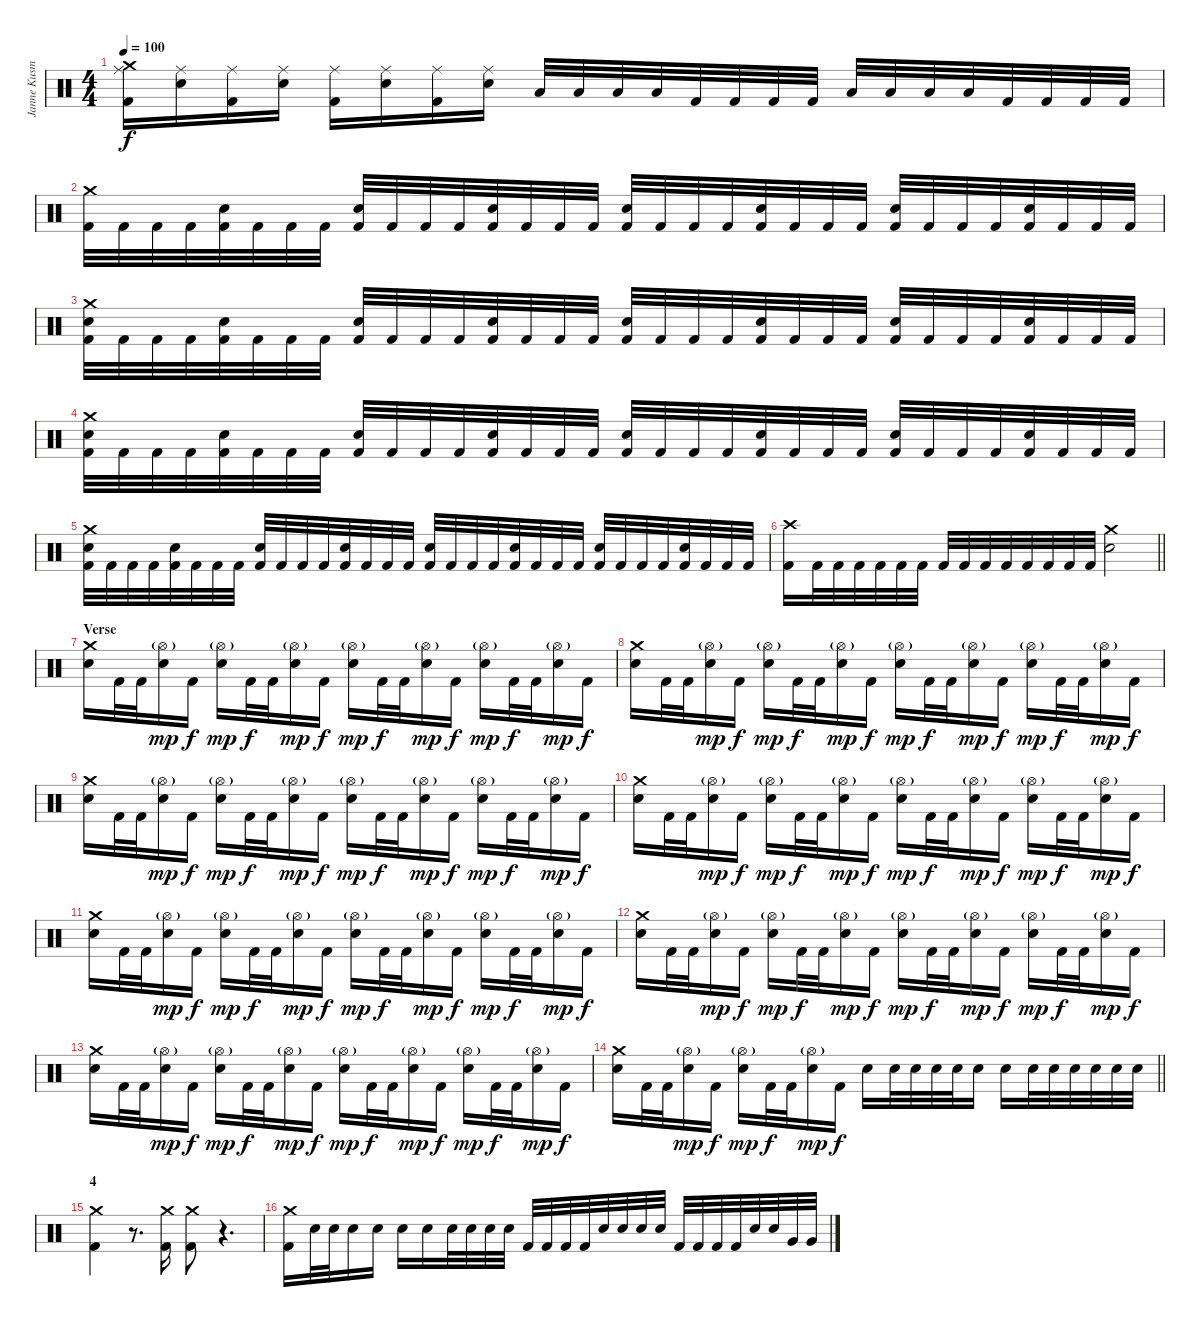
\track ("Janne Kusmin " "Janne Kusm") {instrument percussion}
\staff {score}
\articulation defaults
\ts (4 4)
\tempo 100
\clef neutral
\ks c
("Crash medium (hit)" "Ride (middle)" "Kick (hit) 2").16{dy f} ("Ride (middle)" "Electric Snare (hit)").16 ("Ride (middle)" "Kick (hit) 2").16 ("Ride (middle)" "Electric Snare (hit)").16 ("Ride (middle)" "Kick (hit) 2").16 ("Ride (middle)" "Electric Snare (hit)").16 ("Ride (middle)" "Kick (hit) 2").16 ("Ride (middle)" "Electric Snare (hit)").16 "Low Tom (hit)".32 "Low Tom (hit)".32 "Low Tom (hit)".32 "Low Tom (hit)".32 "Kick (hit) 2".32 "Kick (hit) 2".32 "Kick (hit) 2".32 "Kick (hit) 2".32 "Low Tom (hit)".32 "Low Tom (hit)".32 "Low Tom (hit)".32 "Low Tom (hit)".32 "Kick (hit) 2".32 "Kick (hit) 2".32 "Kick (hit) 2".32 "Kick (hit) 2".32 |
("Crash medium (hit)" "Kick (hit) 2").32 "Kick (hit) 2".32 "Kick (hit) 2".32 "Kick (hit) 2".32 ("Electric Snare (hit)" "Kick (hit) 2").32 "Kick (hit) 2".32 "Kick (hit) 2".32 "Kick (hit) 2".32 ("Electric Snare (hit)" "Kick (hit) 2").32 "Kick (hit) 2".32 "Kick (hit) 2".32 "Kick (hit) 2".32 ("Electric Snare (hit)" "Kick (hit) 2").32 "Kick (hit) 2".32 "Kick (hit) 2".32 "Kick (hit) 2".32 ("Electric Snare (hit)" "Kick (hit) 2").32 "Kick (hit) 2".32 "Kick (hit) 2".32 "Kick (hit) 2".32 ("Electric Snare (hit)" "Kick (hit) 2").32 "Kick (hit) 2".32 "Kick (hit) 2".32 "Kick (hit) 2".32 ("Electric Snare (hit)" "Kick (hit) 2").32 "Kick (hit) 2".32 "Kick (hit) 2".32 "Kick (hit) 2".32 ("Electric Snare (hit)" "Kick (hit) 2").32 "Kick (hit) 2".32 "Kick (hit) 2".32 "Kick (hit) 2".32 |
("Crash medium (hit)" "Electric Snare (hit)" "Kick (hit) 2").32 "Kick (hit) 2".32 "Kick (hit) 2".32 "Kick (hit) 2".32 ("Electric Snare (hit)" "Kick (hit) 2").32 "Kick (hit) 2".32 "Kick (hit) 2".32 "Kick (hit) 2".32 ("Electric Snare (hit)" "Kick (hit) 2").32 "Kick (hit) 2".32 "Kick (hit) 2".32 "Kick (hit) 2".32 ("Electric Snare (hit)" "Kick (hit) 2").32 "Kick (hit) 2".32 "Kick (hit) 2".32 "Kick (hit) 2".32 ("Electric Snare (hit)" "Kick (hit) 2").32 "Kick (hit) 2".32 "Kick (hit) 2".32 "Kick (hit) 2".32 ("Electric Snare (hit)" "Kick (hit) 2").32 "Kick (hit) 2".32 "Kick (hit) 2".32 "Kick (hit) 2".32 ("Electric Snare (hit)" "Kick (hit) 2").32 "Kick (hit) 2".32 "Kick (hit) 2".32 "Kick (hit) 2".32 ("Electric Snare (hit)" "Kick (hit) 2").32 "Kick (hit) 2".32 "Kick (hit) 2".32 "Kick (hit) 2".32 |
("Crash medium (hit)" "Electric Snare (hit)" "Kick (hit) 2").32 "Kick (hit) 2".32 "Kick (hit) 2".32 "Kick (hit) 2".32 ("Electric Snare (hit)" "Kick (hit) 2").32 "Kick (hit) 2".32 "Kick (hit) 2".32 "Kick (hit) 2".32 ("Electric Snare (hit)" "Kick (hit) 2").32 "Kick (hit) 2".32 "Kick (hit) 2".32 "Kick (hit) 2".32 ("Electric Snare (hit)" "Kick (hit) 2").32 "Kick (hit) 2".32 "Kick (hit) 2".32 "Kick (hit) 2".32 ("Electric Snare (hit)" "Kick (hit) 2").32 "Kick (hit) 2".32 "Kick (hit) 2".32 "Kick (hit) 2".32 ("Electric Snare (hit)" "Kick (hit) 2").32 "Kick (hit) 2".32 "Kick (hit) 2".32 "Kick (hit) 2".32 ("Electric Snare (hit)" "Kick (hit) 2").32 "Kick (hit) 2".32 "Kick (hit) 2".32 "Kick (hit) 2".32 ("Electric Snare (hit)" "Kick (hit) 2").32 "Kick (hit) 2".32 "Kick (hit) 2".32 "Kick (hit) 2".32 |
("Crash medium (hit)" "Electric Snare (hit)" "Kick (hit) 2").32 "Kick (hit) 2".32 "Kick (hit) 2".32 "Kick (hit) 2".32 ("Electric Snare (hit)" "Kick (hit) 2").32 "Kick (hit) 2".32 "Kick (hit) 2".32 "Kick (hit) 2".32 ("Electric Snare (hit)" "Kick (hit) 2").32 "Kick (hit) 2".32 "Kick (hit) 2".32 "Kick (hit) 2".32 ("Electric Snare (hit)" "Kick (hit) 2").32 "Kick (hit) 2".32 "Kick (hit) 2".32 "Kick (hit) 2".32 ("Electric Snare (hit)" "Kick (hit) 2").32 "Kick (hit) 2".32 "Kick (hit) 2".32 "Kick (hit) 2".32 ("Electric Snare (hit)" "Kick (hit) 2").32 "Kick (hit) 2".32 "Kick (hit) 2".32 "Kick (hit) 2".32 ("Electric Snare (hit)" "Kick (hit) 2").32 "Kick (hit) 2".32 "Kick (hit) 2".32 "Kick (hit) 2".32 ("Electric Snare (hit)" "Kick (hit) 2").32 "Kick (hit) 2".32 "Kick (hit) 2".32 "Kick (hit) 2".32 |
\barLineRight lightlight
("Crash high (hit)" "Kick (hit) 2").16 "Kick (hit) 2".32 "Kick (hit) 2".32 "Kick (hit) 2".32 "Kick (hit) 2".32 "Kick (hit) 2".32 "Kick (hit) 2".32 "Kick (hit) 2".32 "Kick (hit) 2".32 "Kick (hit) 2".32 "Kick (hit) 2".32 "Kick (hit) 2".32 "Kick (hit) 2".32 "Kick (hit) 2".32 "Kick (hit) 2".32 ("Crash medium (hit)" "Electric Snare (hit)").2 |
\section ("" "Verse")
("Crash medium (hit)" "Electric Snare (hit)").16 "Kick (hit) 2".32 "Kick (hit) 2".32 ("Hi-Hat (open)"{g} "Electric Snare (hit)").16{dy mp} "Kick (hit) 2".16{dy f} ("Hi-Hat (open)"{g} "Electric Snare (hit)").16{dy mp} "Kick (hit) 2".32{dy f} "Kick (hit) 2".32 ("Hi-Hat (open)"{g} "Electric Snare (hit)").16{dy mp} "Kick (hit) 2".16{dy f} ("Hi-Hat (open)"{g} "Electric Snare (hit)").16{dy mp} "Kick (hit) 2".32{dy f} "Kick (hit) 2".32 ("Hi-Hat (open)"{g} "Electric Snare (hit)").16{dy mp} "Kick (hit) 2".16{dy f} ("Hi-Hat (open)"{g} "Electric Snare (hit)").16{dy mp} "Kick (hit) 2".32{dy f} "Kick (hit) 2".32 ("Hi-Hat (open)"{g} "Electric Snare (hit)").16{dy mp} "Kick (hit) 2".16{dy f} |
("Crash medium (hit)" "Electric Snare (hit)").16 "Kick (hit) 2".32 "Kick (hit) 2".32 ("Hi-Hat (open)"{g} "Electric Snare (hit)").16{dy mp} "Kick (hit) 2".16{dy f} ("Hi-Hat (open)"{g} "Electric Snare (hit)").16{dy mp} "Kick (hit) 2".32{dy f} "Kick (hit) 2".32 ("Hi-Hat (open)"{g} "Electric Snare (hit)").16{dy mp} "Kick (hit) 2".16{dy f} ("Hi-Hat (open)"{g} "Electric Snare (hit)").16{dy mp} "Kick (hit) 2".32{dy f} "Kick (hit) 2".32 ("Hi-Hat (open)"{g} "Electric Snare (hit)").16{dy mp} "Kick (hit) 2".16{dy f} ("Hi-Hat (open)"{g} "Electric Snare (hit)").16{dy mp} "Kick (hit) 2".32{dy f} "Kick (hit) 2".32 ("Hi-Hat (open)"{g} "Electric Snare (hit)").16{dy mp} "Kick (hit) 2".16{dy f} |
("Crash medium (hit)" "Electric Snare (hit)").16 "Kick (hit) 2".32 "Kick (hit) 2".32 ("Hi-Hat (open)"{g} "Electric Snare (hit)").16{dy mp} "Kick (hit) 2".16{dy f} ("Hi-Hat (open)"{g} "Electric Snare (hit)").16{dy mp} "Kick (hit) 2".32{dy f} "Kick (hit) 2".32 ("Hi-Hat (open)"{g} "Electric Snare (hit)").16{dy mp} "Kick (hit) 2".16{dy f} ("Hi-Hat (open)"{g} "Electric Snare (hit)").16{dy mp} "Kick (hit) 2".32{dy f} "Kick (hit) 2".32 ("Hi-Hat (open)"{g} "Electric Snare (hit)").16{dy mp} "Kick (hit) 2".16{dy f} ("Hi-Hat (open)"{g} "Electric Snare (hit)").16{dy mp} "Kick (hit) 2".32{dy f} "Kick (hit) 2".32 ("Hi-Hat (open)"{g} "Electric Snare (hit)").16{dy mp} "Kick (hit) 2".16{dy f} |
("Crash medium (hit)" "Electric Snare (hit)").16 "Kick (hit) 2".32 "Kick (hit) 2".32 ("Hi-Hat (open)"{g} "Electric Snare (hit)").16{dy mp} "Kick (hit) 2".16{dy f} ("Hi-Hat (open)"{g} "Electric Snare (hit)").16{dy mp} "Kick (hit) 2".32{dy f} "Kick (hit) 2".32 ("Hi-Hat (open)"{g} "Electric Snare (hit)").16{dy mp} "Kick (hit) 2".16{dy f} ("Hi-Hat (open)"{g} "Electric Snare (hit)").16{dy mp} "Kick (hit) 2".32{dy f} "Kick (hit) 2".32 ("Hi-Hat (open)"{g} "Electric Snare (hit)").16{dy mp} "Kick (hit) 2".16{dy f} ("Hi-Hat (open)"{g} "Electric Snare (hit)").16{dy mp} "Kick (hit) 2".32{dy f} "Kick (hit) 2".32 ("Hi-Hat (open)"{g} "Electric Snare (hit)").16{dy mp} "Kick (hit) 2".16{dy f} |
("Crash medium (hit)" "Electric Snare (hit)").16 "Kick (hit) 2".32 "Kick (hit) 2".32 ("Hi-Hat (open)"{g} "Electric Snare (hit)").16{dy mp} "Kick (hit) 2".16{dy f} ("Hi-Hat (open)"{g} "Electric Snare (hit)").16{dy mp} "Kick (hit) 2".32{dy f} "Kick (hit) 2".32 ("Hi-Hat (open)"{g} "Electric Snare (hit)").16{dy mp} "Kick (hit) 2".16{dy f} ("Hi-Hat (open)"{g} "Electric Snare (hit)").16{dy mp} "Kick (hit) 2".32{dy f} "Kick (hit) 2".32 ("Hi-Hat (open)"{g} "Electric Snare (hit)").16{dy mp} "Kick (hit) 2".16{dy f} ("Hi-Hat (open)"{g} "Electric Snare (hit)").16{dy mp} "Kick (hit) 2".32{dy f} "Kick (hit) 2".32 ("Hi-Hat (open)"{g} "Electric Snare (hit)").16{dy mp} "Kick (hit) 2".16{dy f} |
("Crash medium (hit)" "Electric Snare (hit)").16 "Kick (hit) 2".32 "Kick (hit) 2".32 ("Hi-Hat (open)"{g} "Electric Snare (hit)").16{dy mp} "Kick (hit) 2".16{dy f} ("Hi-Hat (open)"{g} "Electric Snare (hit)").16{dy mp} "Kick (hit) 2".32{dy f} "Kick (hit) 2".32 ("Hi-Hat (open)"{g} "Electric Snare (hit)").16{dy mp} "Kick (hit) 2".16{dy f} ("Hi-Hat (open)"{g} "Electric Snare (hit)").16{dy mp} "Kick (hit) 2".32{dy f} "Kick (hit) 2".32 ("Hi-Hat (open)"{g} "Electric Snare (hit)").16{dy mp} "Kick (hit) 2".16{dy f} ("Hi-Hat (open)"{g} "Electric Snare (hit)").16{dy mp} "Kick (hit) 2".32{dy f} "Kick (hit) 2".32 ("Hi-Hat (open)"{g} "Electric Snare (hit)").16{dy mp} "Kick (hit) 2".16{dy f} |
("Crash medium (hit)" "Electric Snare (hit)").16 "Kick (hit) 2".32 "Kick (hit) 2".32 ("Hi-Hat (open)"{g} "Electric Snare (hit)").16{dy mp} "Kick (hit) 2".16{dy f} ("Hi-Hat (open)"{g} "Electric Snare (hit)").16{dy mp} "Kick (hit) 2".32{dy f} "Kick (hit) 2".32 ("Hi-Hat (open)"{g} "Electric Snare (hit)").16{dy mp} "Kick (hit) 2".16{dy f} ("Hi-Hat (open)"{g} "Electric Snare (hit)").16{dy mp} "Kick (hit) 2".32{dy f} "Kick (hit) 2".32 ("Hi-Hat (open)"{g} "Electric Snare (hit)").16{dy mp} "Kick (hit) 2".16{dy f} ("Hi-Hat (open)"{g} "Electric Snare (hit)").16{dy mp} "Kick (hit) 2".32{dy f} "Kick (hit) 2".32 ("Hi-Hat (open)"{g} "Electric Snare (hit)").16{dy mp} "Kick (hit) 2".16{dy f} |
\barLineRight lightlight
("Crash medium (hit)" "Electric Snare (hit)").16 "Kick (hit) 2".32 "Kick (hit) 2".32 ("Hi-Hat (open)"{g} "Electric Snare (hit)").16{dy mp} "Kick (hit) 2".16{dy f} ("Hi-Hat (open)"{g} "Electric Snare (hit)").16{dy mp} "Kick (hit) 2".32{dy f} "Kick (hit) 2".32 ("Hi-Hat (open)"{g} "Electric Snare (hit)").16{dy mp} "Kick (hit) 2".16{dy f} "Electric Snare (hit)".16 "Electric Snare (hit)".32 "Electric Snare (hit)".32 "Electric Snare (hit)".32 "Electric Snare (hit)".32 "Electric Snare (hit)".16 "Electric Snare (hit)".16 "Electric Snare (hit)".32 "Electric Snare (hit)".32 "Electric Snare (hit)".32 "Electric Snare (hit)".32 "Electric Snare (hit)".32 "Electric Snare (hit)".32 |
\section ("" "4")
("Crash medium (hit)" "Kick (hit) 2").4 r.8{d} ("Crash medium (hit)" "Kick (hit) 2").16 ("Crash medium (hit)" "Kick (hit) 2").8 r.4{d} |
("Crash medium (hit)" "Kick (hit) 2").16 "Electric Snare (hit)".32 "Electric Snare (hit)".32 "Electric Snare (hit)".16 "Electric Snare (hit)".16 "Electric Snare (hit)".16 "Electric Snare (hit)".16 "Electric Snare (hit)".32 "Electric Snare (hit)".32 "Electric Snare (hit)".32 "Electric Snare (hit)".32 "Kick (hit) 2".32 "Kick (hit) 2".32 "Kick (hit) 2".32 "Kick (hit) 2".32 "Electric Snare (hit)".32 "Electric Snare (hit)".32 "Electric Snare (hit)".32 "Electric Snare (hit)".32 "Kick (hit) 2".32 "Kick (hit) 2".32 "Kick (hit) 2".32 "Kick (hit) 2".32 "Electric Snare (hit)".32 "Electric Snare (hit)".32 "Very Low Tom (hit)".32 "Very Low Tom (hit)".32
